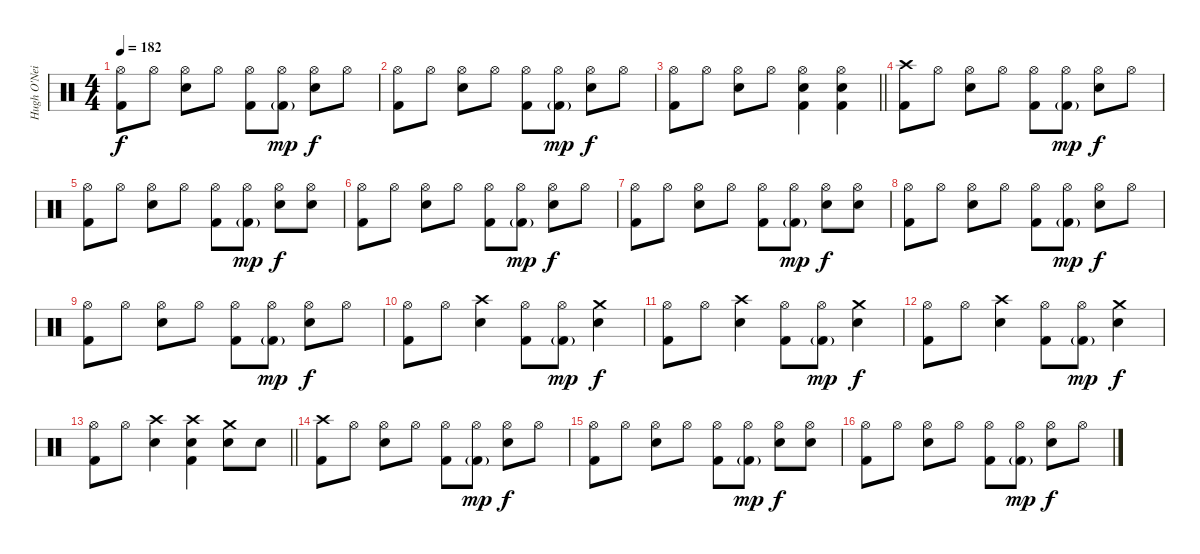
\track ("Hugh O'Neil" "Hugh O'Nei") {instrument percussion}
\staff {score}
\articulation defaults
\ts (4 4)
\tempo 182
\clef neutral
\ks c
("Hi-Hat (open)" "Kick (hit) 2").8{dy f} "Hi-Hat (open)".8 ("Hi-Hat (open)" "Electric Snare (hit)").8 "Hi-Hat (open)".8 ("Hi-Hat (open)" "Kick (hit) 2").8 ("Hi-Hat (open)" "Kick (hit) 2"{g}).8{dy mp} ("Hi-Hat (open)" "Electric Snare (hit)").8{dy f} "Hi-Hat (open)".8 |
("Hi-Hat (open)" "Kick (hit) 2").8 "Hi-Hat (open)".8 ("Hi-Hat (open)" "Electric Snare (hit)").8 "Hi-Hat (open)".8 ("Hi-Hat (open)" "Kick (hit) 2").8 ("Hi-Hat (open)" "Kick (hit) 2"{g}).8{dy mp} ("Hi-Hat (open)" "Electric Snare (hit)").8{dy f} "Hi-Hat (open)".8 |
\barLineRight lightlight
("Hi-Hat (open)" "Kick (hit) 2").8 "Hi-Hat (open)".8 ("Hi-Hat (open)" "Electric Snare (hit)").8 "Hi-Hat (open)".8 ("Hi-Hat (open)" "Electric Snare (hit)" "Kick (hit) 2").4 ("Hi-Hat (open)" "Electric Snare (hit)" "Kick (hit) 2").4 |
\section ("" "")
("Crash high (hit)" "Kick (hit) 2").8 "Hi-Hat (open)".8 ("Hi-Hat (open)" "Electric Snare (hit)").8 "Hi-Hat (open)".8 ("Hi-Hat (open)" "Kick (hit) 2").8 ("Hi-Hat (open)" "Kick (hit) 2"{g}).8{dy mp} ("Hi-Hat (open)" "Electric Snare (hit)").8{dy f} "Hi-Hat (open)".8 |
("Hi-Hat (open)" "Kick (hit) 2").8 "Hi-Hat (open)".8 ("Hi-Hat (open)" "Electric Snare (hit)").8 "Hi-Hat (open)".8 ("Hi-Hat (open)" "Kick (hit) 2").8 ("Hi-Hat (open)" "Kick (hit) 2"{g}).8{dy mp} ("Hi-Hat (open)" "Electric Snare (hit)").8{dy f} ("Hi-Hat (open)" "Electric Snare (hit)").8 |
("Hi-Hat (open)" "Kick (hit) 2").8 "Hi-Hat (open)".8 ("Hi-Hat (open)" "Electric Snare (hit)").8 "Hi-Hat (open)".8 ("Hi-Hat (open)" "Kick (hit) 2").8 ("Hi-Hat (open)" "Kick (hit) 2"{g}).8{dy mp} ("Hi-Hat (open)" "Electric Snare (hit)").8{dy f} "Hi-Hat (open)".8 |
("Hi-Hat (open)" "Kick (hit) 2").8 "Hi-Hat (open)".8 ("Hi-Hat (open)" "Electric Snare (hit)").8 "Hi-Hat (open)".8 ("Hi-Hat (open)" "Kick (hit) 2").8 ("Hi-Hat (open)" "Kick (hit) 2"{g}).8{dy mp} ("Hi-Hat (open)" "Electric Snare (hit)").8{dy f} ("Hi-Hat (open)" "Electric Snare (hit)").8 |
("Hi-Hat (open)" "Kick (hit) 2").8 "Hi-Hat (open)".8 ("Hi-Hat (open)" "Electric Snare (hit)").8 "Hi-Hat (open)".8 ("Hi-Hat (open)" "Kick (hit) 2").8 ("Hi-Hat (open)" "Kick (hit) 2"{g}).8{dy mp} ("Hi-Hat (open)" "Electric Snare (hit)").8{dy f} "Hi-Hat (open)".8 |
("Hi-Hat (open)" "Kick (hit) 2").8 "Hi-Hat (open)".8 ("Hi-Hat (open)" "Electric Snare (hit)").8 "Hi-Hat (open)".8 ("Hi-Hat (open)" "Kick (hit) 2").8 ("Hi-Hat (open)" "Kick (hit) 2"{g}).8{dy mp} ("Hi-Hat (open)" "Electric Snare (hit)").8{dy f} "Hi-Hat (open)".8 |
("Hi-Hat (open)" "Kick (hit) 2").8 "Hi-Hat (open)".8 ("Crash high (hit)" "Electric Snare (hit)").4 ("Hi-Hat (open)" "Kick (hit) 2").8 ("Hi-Hat (open)" "Kick (hit) 2"{g}).8{dy mp} ("Crash medium (hit)" "Electric Snare (hit)").4{dy f} |
("Hi-Hat (open)" "Kick (hit) 2").8 "Hi-Hat (open)".8 ("Crash high (hit)" "Electric Snare (hit)").4 ("Hi-Hat (open)" "Kick (hit) 2").8 ("Hi-Hat (open)" "Kick (hit) 2"{g}).8{dy mp} ("Crash medium (hit)" "Electric Snare (hit)").4{dy f} |
("Hi-Hat (open)" "Kick (hit) 2").8 "Hi-Hat (open)".8 ("Crash high (hit)" "Electric Snare (hit)").4 ("Hi-Hat (open)" "Kick (hit) 2").8 ("Hi-Hat (open)" "Kick (hit) 2"{g}).8{dy mp} ("Crash medium (hit)" "Electric Snare (hit)").4{dy f} |
\barLineRight lightlight
("Hi-Hat (open)" "Kick (hit) 2").8 "Hi-Hat (open)".8 ("Crash high (hit)" "Electric Snare (hit)").4 ("Crash high (hit)" "Electric Snare (hit)" "Kick (hit) 2").4 ("Crash medium (hit)" "Electric Snare (hit)").8 "Electric Snare (hit)".8 |
\section ("" "")
("Crash high (hit)" "Kick (hit) 2").8 "Hi-Hat (open)".8 ("Hi-Hat (open)" "Electric Snare (hit)").8 "Hi-Hat (open)".8 ("Hi-Hat (open)" "Kick (hit) 2").8 ("Hi-Hat (open)" "Kick (hit) 2"{g}).8{dy mp} ("Hi-Hat (open)" "Electric Snare (hit)").8{dy f} "Hi-Hat (open)".8 |
("Hi-Hat (open)" "Kick (hit) 2").8 "Hi-Hat (open)".8 ("Hi-Hat (open)" "Electric Snare (hit)").8 "Hi-Hat (open)".8 ("Hi-Hat (open)" "Kick (hit) 2").8 ("Hi-Hat (open)" "Kick (hit) 2"{g}).8{dy mp} ("Hi-Hat (open)" "Electric Snare (hit)").8{dy f} ("Hi-Hat (open)" "Electric Snare (hit)").8 |
("Hi-Hat (open)" "Kick (hit) 2").8 "Hi-Hat (open)".8 ("Hi-Hat (open)" "Electric Snare (hit)").8 "Hi-Hat (open)".8 ("Hi-Hat (open)" "Kick (hit) 2").8 ("Hi-Hat (open)" "Kick (hit) 2"{g}).8{dy mp} ("Hi-Hat (open)" "Electric Snare (hit)").8{dy f} "Hi-Hat (open)".8
